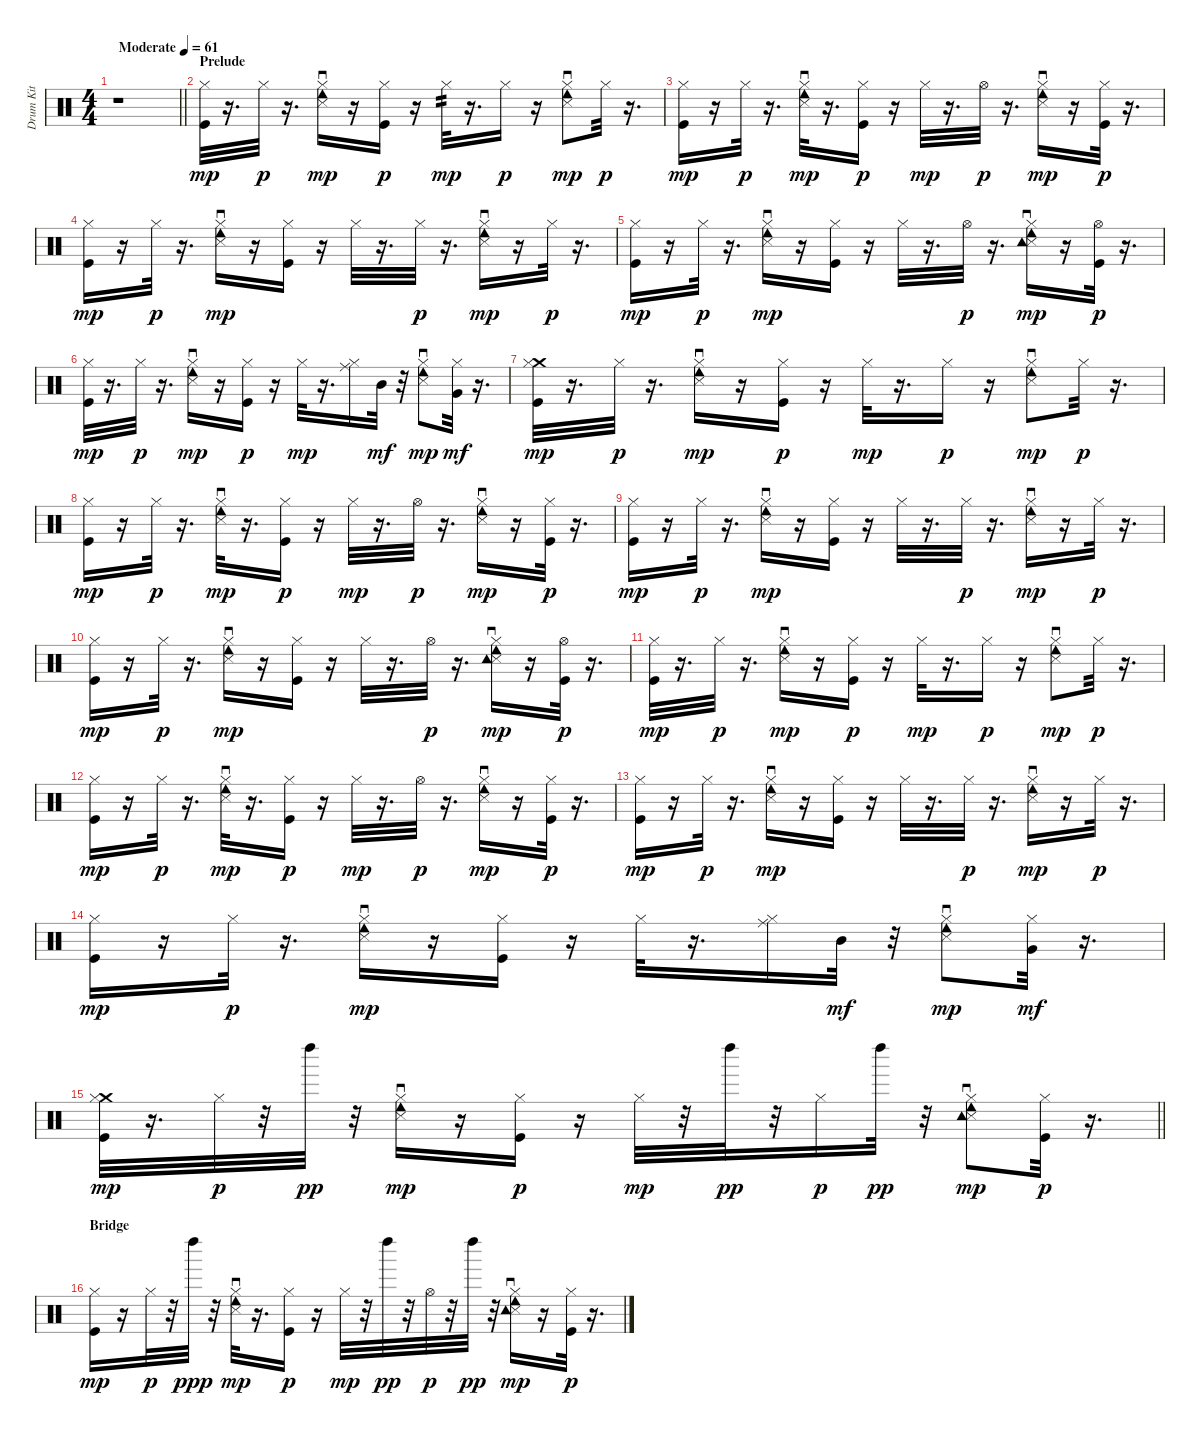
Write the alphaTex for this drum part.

\track ("Drum Kit" "Drum Kit") {instrument percussion}
\staff {score}
\articulation defaults
\ts (4 4)
\tempo (61 "Moderate")
\clef neutral
\barLineRight lightlight
\ks c
r.1{dy mp} |
\section ("" "Prelude")
("Kick (hit)" "Hi-Hat (closed)").32{balance 8} r.16{d} "Hi-Hat (closed)".32{dy p} r.16{d} ("Hi-Hat (closed)" "Snare (side stick) 3" "Tambourine (roll)").16{dy mp} r.16 ("Kick (hit)" "Hi-Hat (closed)").16{dy p} r.16 "Hi-Hat (closed)".32{tp 2 dy mp} r.16{d} "Hi-Hat (closed)".16{dy p} r.16 ("Hi-Hat (closed)" "Snare (side stick) 3" "Tambourine (roll)").8{dy mp} "Hi-Hat (closed)".32{dy p} r.16{d} |
("Kick (hit)" "Hi-Hat (closed)").16{dy mp} r.16 "Hi-Hat (closed)".32{dy p} r.16{d} ("Hi-Hat (closed)" "Snare (side stick) 3" "Tambourine (roll)").32{dy mp} r.16{d} ("Kick (hit)" "Hi-Hat (closed)").16{dy p} r.16 "Hi-Hat (closed)".32{dy mp} r.16{d} "Hi-Hat (open)".32{dy p} r.16{d} ("Hi-Hat (closed)" "Snare (side stick) 3" "Tambourine (roll)").16{dy mp} r.16 ("Kick (hit)" "Hi-Hat (closed)").32{dy p} r.16{d} |
("Kick (hit)" "Hi-Hat (closed)").16{dy mp} r.16 "Hi-Hat (closed)".32{dy p} r.16{d} ("Hi-Hat (closed)" "Snare (side stick) 3" "Tambourine (roll)").16{dy mp} r.16 ("Kick (hit)" "Hi-Hat (closed)").16 r.16 "Hi-Hat (closed)".32 r.16{d} "Hi-Hat (closed)".32{dy p} r.16{d} ("Hi-Hat (closed)" "Snare (side stick) 3" "Tambourine (roll)").16{dy mp} r.16 "Hi-Hat (closed)".32{dy p} r.16{d} |
("Kick (hit)" "Hi-Hat (closed)").16{dy mp} r.16 "Hi-Hat (closed)".32{dy p} r.16{d} ("Hi-Hat (closed)" "Snare (side stick) 3" "Tambourine (roll)").16{dy mp} r.16 ("Kick (hit)" "Hi-Hat (closed)").16 r.16 "Hi-Hat (closed)".32 r.16{d} "Hi-Hat (open)".32{dy p} r.16{d} ("Hi-Hat (closed)" "Snare (side stick) 3" "Tambourine (roll)" "Tambourine (hit)").16{dy mp} r.16 ("Kick (hit)" "Hi-Hat (open)").32{dy p} r.16{d} |
("Kick (hit)" "Hi-Hat (closed)").32{dy mp} r.16{d} "Hi-Hat (closed)".32{dy p} r.16{d} ("Hi-Hat (closed)" "Snare (side stick) 3" "Tambourine (roll)").16{dy mp} r.16 ("Kick (hit)" "Hi-Hat (closed)").16{dy p} r.16 "Hi-Hat (closed)".32{dy mp} r.16{d} ("Hi-Hat (closed)" "Ride (middle)").16 "Mid Tom (hit)".32{dy mf} r.32 ("Hi-Hat (closed)" "Snare (side stick) 3" "Tambourine (roll)").8{dy mp} ("Hi-Hat (closed)" "Very Low Tom (hit)").32{dy mf} r.16{d} |
("Crash medium (hit)" "Kick (hit)" "Hi-Hat (closed)").32{dy mp} r.16{d} "Hi-Hat (closed)".32{dy p} r.16{d} ("Hi-Hat (closed)" "Snare (side stick) 3" "Tambourine (roll)").16{dy mp} r.16 ("Kick (hit)" "Hi-Hat (closed)").16{dy p} r.16 "Hi-Hat (closed)".32{dy mp} r.16{d} "Hi-Hat (closed)".16{dy p} r.16 ("Hi-Hat (closed)" "Snare (side stick) 3" "Tambourine (roll)").8{dy mp} "Hi-Hat (closed)".32{dy p} r.16{d} |
("Kick (hit)" "Hi-Hat (closed)").16{dy mp} r.16 "Hi-Hat (closed)".32{dy p} r.16{d} ("Hi-Hat (closed)" "Snare (side stick) 3" "Tambourine (roll)").32{dy mp} r.16{d} ("Kick (hit)" "Hi-Hat (closed)").16{dy p} r.16 "Hi-Hat (closed)".32{dy mp} r.16{d} "Hi-Hat (open)".32{dy p} r.16{d} ("Hi-Hat (closed)" "Snare (side stick) 3" "Tambourine (roll)").16{dy mp} r.16 ("Kick (hit)" "Hi-Hat (closed)").32{dy p} r.16{d} |
("Kick (hit)" "Hi-Hat (closed)").16{dy mp} r.16 "Hi-Hat (closed)".32{dy p} r.16{d} ("Hi-Hat (closed)" "Snare (side stick) 3" "Tambourine (roll)").16{dy mp} r.16 ("Kick (hit)" "Hi-Hat (closed)").16 r.16 "Hi-Hat (closed)".32 r.16{d} "Hi-Hat (closed)".32{dy p} r.16{d} ("Hi-Hat (closed)" "Snare (side stick) 3" "Tambourine (roll)").16{dy mp} r.16 "Hi-Hat (closed)".32{dy p} r.16{d} |
("Kick (hit)" "Hi-Hat (closed)").16{dy mp} r.16 "Hi-Hat (closed)".32{dy p} r.16{d} ("Hi-Hat (closed)" "Snare (side stick) 3" "Tambourine (roll)").16{dy mp} r.16 ("Kick (hit)" "Hi-Hat (closed)").16 r.16 "Hi-Hat (closed)".32 r.16{d} "Hi-Hat (open)".32{dy p} r.16{d} ("Hi-Hat (closed)" "Snare (side stick) 3" "Tambourine (roll)" "Tambourine (hit)").16{dy mp} r.16 ("Kick (hit)" "Hi-Hat (open)").32{dy p} r.16{d} |
("Kick (hit)" "Hi-Hat (closed)").32{dy mp} r.16{d} "Hi-Hat (closed)".32{dy p} r.16{d} ("Hi-Hat (closed)" "Snare (side stick) 3" "Tambourine (roll)").16{dy mp} r.16 ("Kick (hit)" "Hi-Hat (closed)").16{dy p} r.16 "Hi-Hat (closed)".32{dy mp} r.16{d} "Hi-Hat (closed)".16{dy p} r.16 ("Hi-Hat (closed)" "Snare (side stick) 3" "Tambourine (roll)").8{dy mp} "Hi-Hat (closed)".32{dy p} r.16{d} |
("Kick (hit)" "Hi-Hat (closed)").16{dy mp} r.16 "Hi-Hat (closed)".32{dy p} r.16{d} ("Hi-Hat (closed)" "Snare (side stick) 3" "Tambourine (roll)").32{dy mp} r.16{d} ("Kick (hit)" "Hi-Hat (closed)").16{dy p} r.16 "Hi-Hat (closed)".32{dy mp} r.16{d} "Hi-Hat (open)".32{dy p} r.16{d} ("Hi-Hat (closed)" "Snare (side stick) 3" "Tambourine (roll)").16{dy mp} r.16 ("Kick (hit)" "Hi-Hat (closed)").32{dy p} r.16{d} |
("Kick (hit)" "Hi-Hat (closed)").16{dy mp} r.16 "Hi-Hat (closed)".32{dy p} r.16{d} ("Hi-Hat (closed)" "Snare (side stick) 3" "Tambourine (roll)").16{dy mp} r.16 ("Kick (hit)" "Hi-Hat (closed)").16 r.16 "Hi-Hat (closed)".32 r.16{d} "Hi-Hat (closed)".32{dy p} r.16{d} ("Hi-Hat (closed)" "Snare (side stick) 3" "Tambourine (roll)").16{dy mp} r.16 "Hi-Hat (closed)".32{dy p} r.16{d} |
("Kick (hit)" "Hi-Hat (closed)").16{dy mp} r.16 "Hi-Hat (closed)".32{dy p} r.16{d} ("Hi-Hat (closed)" "Snare (side stick) 3" "Tambourine (roll)").16{dy mp} r.16 ("Kick (hit)" "Hi-Hat (closed)").16 r.16 "Hi-Hat (closed)".32 r.16{d} ("Hi-Hat (closed)" "Ride (middle)").16 "Mid Tom (hit)".32{dy mf} r.32 ("Hi-Hat (closed)" "Snare (side stick) 3" "Tambourine (roll)").8{dy mp} ("Hi-Hat (closed)" "Very Low Tom (hit)").32{dy mf} r.16{d} |
\barLineRight lightlight
("Crash medium (hit)" "Kick (hit)" "Hi-Hat (closed)").32{dy mp} r.16{d} "Hi-Hat (closed)".32{dy p} r.32 "Left Maraca (hit)".32{dy pp} r.32 ("Hi-Hat (closed)" "Snare (side stick) 3" "Tambourine (roll)").16{dy mp} r.16 ("Kick (hit)" "Hi-Hat (closed)").16{dy p} r.16 "Hi-Hat (closed)".32{dy mp} r.32 "Left Maraca (hit)".32{dy pp} r.32 "Hi-Hat (closed)".16{dy p} "Left Maraca (hit)".32{dy pp} r.32 ("Hi-Hat (closed)" "Snare (side stick) 3" "Tambourine (roll)" "Tambourine (hit)").8{dy mp} ("Kick (hit)" "Hi-Hat (closed)").32{dy p} r.16{d} |
\section ("" "Bridge")
("Kick (hit)" "Hi-Hat (closed)").16{dy mp} r.16 "Hi-Hat (closed)".32{dy p} r.32 "Left Maraca (hit)".32{dy ppp} r.32 ("Hi-Hat (closed)" "Snare (side stick) 3" "Tambourine (roll)").32{dy mp} r.16{d} ("Kick (hit)" "Hi-Hat (closed)").16{dy p} r.16 "Hi-Hat (closed)".32{dy mp} r.32 "Left Maraca (hit)".32{dy pp} r.32 "Hi-Hat (open)".32{dy p} r.32 "Left Maraca (hit)".32{dy pp} r.32 ("Hi-Hat (closed)" "Snare (side stick) 3" "Tambourine (roll)" "Tambourine (hit)").16{dy mp} r.16 ("Kick (hit)" "Hi-Hat (closed)").32{dy p} r.16{d}
